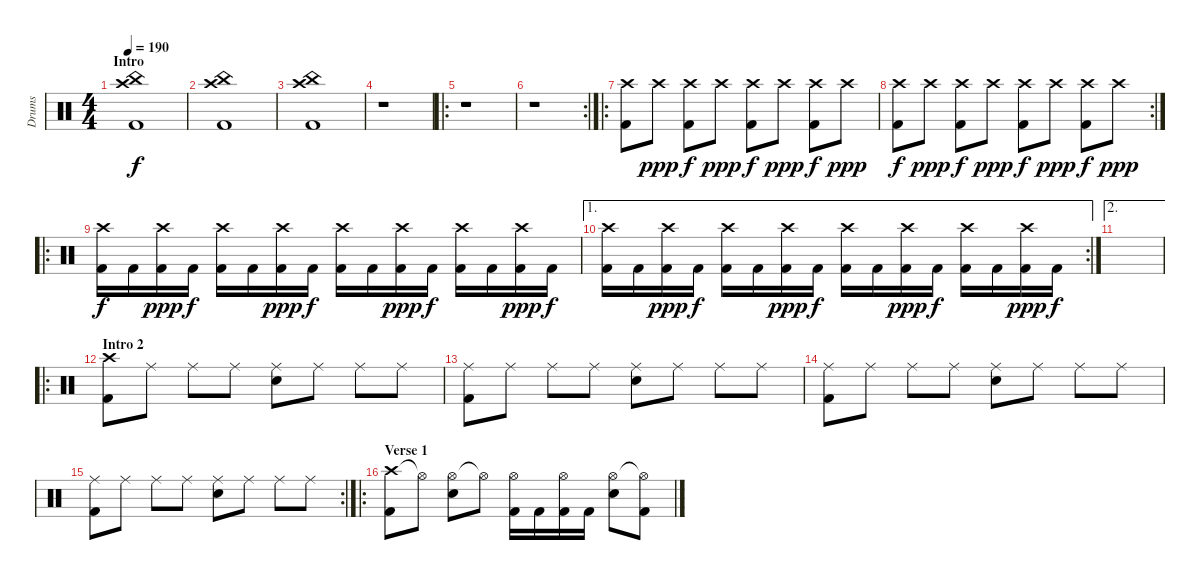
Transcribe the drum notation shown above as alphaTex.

\track ("Drums" "Drums") {instrument percussion}
\staff {score}
\articulation defaults
\ts (4 4)
\section ("" "Intro")
\tempo 190
\clef neutral
\ks c
("Kick (hit) 2" "Crash high (hit)" "China (hit)").1{dy f} |
("Kick (hit) 2" "Crash high (hit)" "China (hit)").1 |
("Kick (hit) 2" "Crash high (hit)" "China (hit)").1 |
r.1 |
\ro
r.1 |
\rc 2
r.1 |
\ro
("Crash high (hit)" "Kick (hit) 2").8 "Crash high (hit)".8{dy ppp} ("Crash high (hit)" "Kick (hit) 2").8{dy f} "Crash high (hit)".8{dy ppp} ("Crash high (hit)" "Kick (hit) 2").8{dy f} "Crash high (hit)".8{dy ppp} ("Crash high (hit)" "Kick (hit) 2").8{dy f} "Crash high (hit)".8{dy ppp} |
\rc 2
("Crash high (hit)" "Kick (hit) 2").8{dy f} "Crash high (hit)".8{dy ppp} ("Crash high (hit)" "Kick (hit) 2").8{dy f} "Crash high (hit)".8{dy ppp} ("Crash high (hit)" "Kick (hit) 2").8{dy f} "Crash high (hit)".8{dy ppp} ("Crash high (hit)" "Kick (hit) 2").8{dy f} "Crash high (hit)".8{dy ppp} |
\ro
("Kick (hit) 2" "Crash high (hit)").16{dy f} "Kick (hit) 2".16 ("Kick (hit) 2" "Crash high (hit)").16{dy ppp} "Kick (hit) 2".16{dy f} ("Kick (hit) 2" "Crash high (hit)").16 "Kick (hit) 2".16 ("Kick (hit) 2" "Crash high (hit)").16{dy ppp} "Kick (hit) 2".16{dy f} ("Kick (hit) 2" "Crash high (hit)").16 "Kick (hit) 2".16 ("Kick (hit) 2" "Crash high (hit)").16{dy ppp} "Kick (hit) 2".16{dy f} ("Kick (hit) 2" "Crash high (hit)").16 "Kick (hit) 2".16 ("Kick (hit) 2" "Crash high (hit)").16{dy ppp} "Kick (hit) 2".16{dy f} |
\ae 1
\rc 2
("Kick (hit) 2" "Crash high (hit)").16 "Kick (hit) 2".16 ("Kick (hit) 2" "Crash high (hit)").16{dy ppp} "Kick (hit) 2".16{dy f} ("Kick (hit) 2" "Crash high (hit)").16 "Kick (hit) 2".16 ("Kick (hit) 2" "Crash high (hit)").16{dy ppp} "Kick (hit) 2".16{dy f} ("Kick (hit) 2" "Crash high (hit)").16 "Kick (hit) 2".16 ("Kick (hit) 2" "Crash high (hit)").16{dy ppp} "Kick (hit) 2".16{dy f} ("Kick (hit) 2" "Crash high (hit)").16 "Kick (hit) 2".16 ("Kick (hit) 2" "Crash high (hit)").16{dy ppp} "Kick (hit) 2".16{dy f} |
\ae 2
|
\ro
\section ("" "Intro 2")
("Crash high (hit)" "Kick (hit) 2").8 "Ride (middle)".8 "Ride (middle)".8 "Ride (middle)".8 ("Ride (middle)" "Electric Snare (hit)").8 "Ride (middle)".8 "Ride (middle)".8 "Ride (middle)".8 |
("Ride (middle)" "Kick (hit) 2").8 "Ride (middle)".8 "Ride (middle)".8 "Ride (middle)".8 ("Ride (middle)" "Electric Snare (hit)").8 "Ride (middle)".8 "Ride (middle)".8 "Ride (middle)".8 |
("Ride (middle)" "Kick (hit) 2").8 "Ride (middle)".8 "Ride (middle)".8 "Ride (middle)".8 ("Ride (middle)" "Electric Snare (hit)").8 "Ride (middle)".8 "Ride (middle)".8 "Ride (middle)".8 |
\rc 2
("Ride (middle)" "Kick (hit) 2").8 "Ride (middle)".8 "Ride (middle)".8 "Ride (middle)".8 ("Ride (middle)" "Electric Snare (hit)").8 "Ride (middle)".8 "Ride (middle)".8 "Ride (middle)".8 |
\ro
\section ("" "Verse 1")
("Crash high (hit)" "Kick (hit) 2").8 "Hi-Hat (open)"{t}.8 ("Hi-Hat (open)" "Electric Snare (hit)").8 "Hi-Hat (open)"{t}.8 ("Kick (hit) 2" "Hi-Hat (open)").16 "Kick (hit) 2".16 ("Kick (hit) 2" "Hi-Hat (open)").16 "Kick (hit) 2".16 ("Electric Snare (hit)" "Hi-Hat (open)").8 ("Kick (hit) 2" "Hi-Hat (open)"{t}).8
